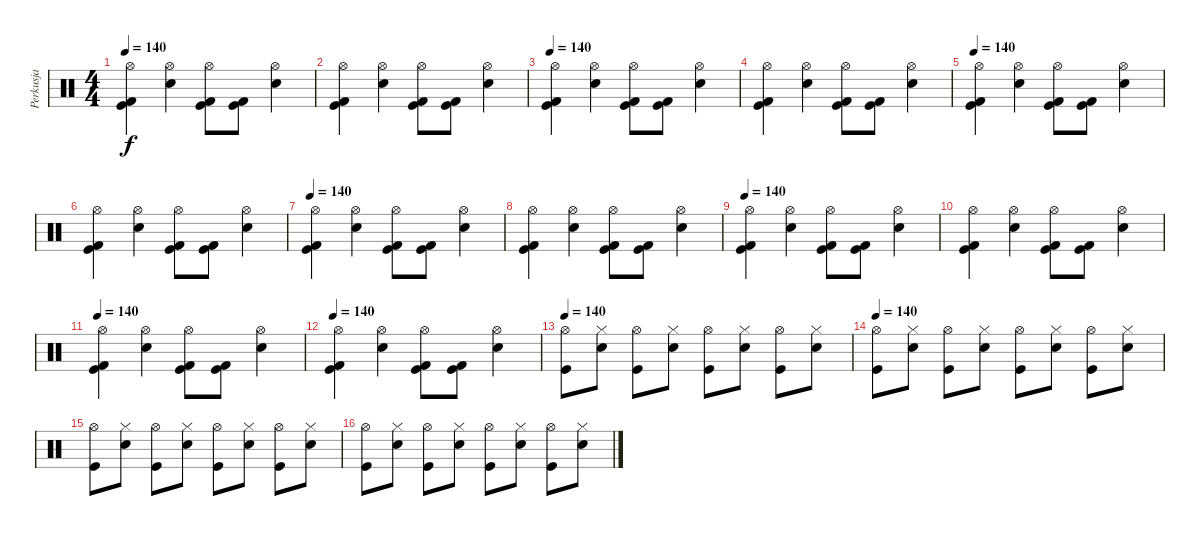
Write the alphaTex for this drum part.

\track ("Perkusja" "Perkusja") {instrument percussion}
\staff {score}
\articulation defaults
\ts (4 4)
\tempo 140
\clef neutral
\ks c
("Hi-Hat (open)" "Kick (hit)" "Kick (hit) 2").4{dy f} ("Hi-Hat (open)" "Snare (hit) 2").4 ("Hi-Hat (open)" "Kick (hit)" "Kick (hit) 2").8 ("Kick (hit)" "Kick (hit) 2").8 ("Hi-Hat (open)" "Snare (hit) 2").4 |
("Hi-Hat (open)" "Kick (hit)" "Kick (hit) 2").4 ("Hi-Hat (open)" "Snare (hit) 2").4 ("Hi-Hat (open)" "Kick (hit)" "Kick (hit) 2").8 ("Kick (hit)" "Kick (hit) 2").8 ("Hi-Hat (open)" "Snare (hit) 2").4 |
\tempo 140
("Hi-Hat (open)" "Kick (hit)" "Kick (hit) 2").4 ("Hi-Hat (open)" "Snare (hit) 2").4 ("Hi-Hat (open)" "Kick (hit)" "Kick (hit) 2").8 ("Kick (hit)" "Kick (hit) 2").8 ("Hi-Hat (open)" "Snare (hit) 2").4 |
("Hi-Hat (open)" "Kick (hit)" "Kick (hit) 2").4 ("Hi-Hat (open)" "Snare (hit) 2").4 ("Hi-Hat (open)" "Kick (hit)" "Kick (hit) 2").8 ("Kick (hit)" "Kick (hit) 2").8 ("Hi-Hat (open)" "Snare (hit) 2").4 |
\tempo 140
("Hi-Hat (open)" "Kick (hit)" "Kick (hit) 2").4 ("Hi-Hat (open)" "Snare (hit) 2").4 ("Hi-Hat (open)" "Kick (hit)" "Kick (hit) 2").8 ("Kick (hit)" "Kick (hit) 2").8 ("Hi-Hat (open)" "Snare (hit) 2").4 |
("Hi-Hat (open)" "Kick (hit)" "Kick (hit) 2").4 ("Hi-Hat (open)" "Snare (hit) 2").4 ("Hi-Hat (open)" "Kick (hit)" "Kick (hit) 2").8 ("Kick (hit)" "Kick (hit) 2").8 ("Hi-Hat (open)" "Snare (hit) 2").4 |
\tempo 140
("Hi-Hat (open)" "Kick (hit)" "Kick (hit) 2").4 ("Hi-Hat (open)" "Snare (hit) 2").4 ("Hi-Hat (open)" "Kick (hit)" "Kick (hit) 2").8 ("Kick (hit)" "Kick (hit) 2").8 ("Hi-Hat (open)" "Snare (hit) 2").4 |
("Hi-Hat (open)" "Kick (hit)" "Kick (hit) 2").4 ("Hi-Hat (open)" "Snare (hit) 2").4 ("Hi-Hat (open)" "Kick (hit)" "Kick (hit) 2").8 ("Kick (hit)" "Kick (hit) 2").8 ("Hi-Hat (open)" "Snare (hit) 2").4 |
\tempo 140
("Hi-Hat (open)" "Kick (hit)" "Kick (hit) 2").4 ("Hi-Hat (open)" "Snare (hit) 2").4 ("Hi-Hat (open)" "Kick (hit)" "Kick (hit) 2").8 ("Kick (hit)" "Kick (hit) 2").8 ("Hi-Hat (open)" "Snare (hit) 2").4 |
("Hi-Hat (open)" "Kick (hit)" "Kick (hit) 2").4 ("Hi-Hat (open)" "Snare (hit) 2").4 ("Hi-Hat (open)" "Kick (hit)" "Kick (hit) 2").8 ("Kick (hit)" "Kick (hit) 2").8 ("Hi-Hat (open)" "Snare (hit) 2").4 |
\tempo 140
("Hi-Hat (open)" "Kick (hit)" "Kick (hit) 2").4 ("Hi-Hat (open)" "Snare (hit) 2").4 ("Hi-Hat (open)" "Kick (hit)" "Kick (hit) 2").8 ("Kick (hit)" "Kick (hit) 2").8 ("Hi-Hat (open)" "Snare (hit) 2").4 |
\tempo 140
("Hi-Hat (open)" "Kick (hit)" "Kick (hit) 2").4 ("Hi-Hat (open)" "Snare (hit) 2").4 ("Hi-Hat (open)" "Kick (hit)" "Kick (hit) 2").8 ("Kick (hit)" "Kick (hit) 2").8 ("Hi-Hat (open)" "Snare (hit) 2").4 |
\tempo 140
("Hi-Hat (open)" "Kick (hit)").8 ("Hi-Hat (closed)" "Snare (hit) 2").8 ("Hi-Hat (open)" "Kick (hit)").8 ("Hi-Hat (closed)" "Snare (hit) 2").8 ("Hi-Hat (open)" "Kick (hit)").8 ("Hi-Hat (closed)" "Snare (hit) 2").8 ("Hi-Hat (open)" "Kick (hit)").8 ("Hi-Hat (closed)" "Snare (hit) 2").8 |
\tempo 140
("Hi-Hat (open)" "Kick (hit)").8 ("Hi-Hat (closed)" "Snare (hit) 2").8 ("Hi-Hat (open)" "Kick (hit)").8 ("Hi-Hat (closed)" "Snare (hit) 2").8 ("Hi-Hat (open)" "Kick (hit)").8 ("Hi-Hat (closed)" "Snare (hit) 2").8 ("Hi-Hat (open)" "Kick (hit)").8 ("Hi-Hat (closed)" "Snare (hit) 2").8 |
("Hi-Hat (open)" "Kick (hit)").8 ("Hi-Hat (closed)" "Snare (hit) 2").8 ("Hi-Hat (open)" "Kick (hit)").8 ("Hi-Hat (closed)" "Snare (hit) 2").8 ("Hi-Hat (open)" "Kick (hit)").8 ("Hi-Hat (closed)" "Snare (hit) 2").8 ("Hi-Hat (open)" "Kick (hit)").8 ("Hi-Hat (closed)" "Snare (hit) 2").8 |
("Hi-Hat (open)" "Kick (hit)").8 ("Hi-Hat (closed)" "Snare (hit) 2").8 ("Hi-Hat (open)" "Kick (hit)").8 ("Hi-Hat (closed)" "Snare (hit) 2").8 ("Hi-Hat (open)" "Kick (hit)").8 ("Hi-Hat (closed)" "Snare (hit) 2").8 ("Hi-Hat (open)" "Kick (hit)").8 ("Hi-Hat (closed)" "Snare (hit) 2").8
